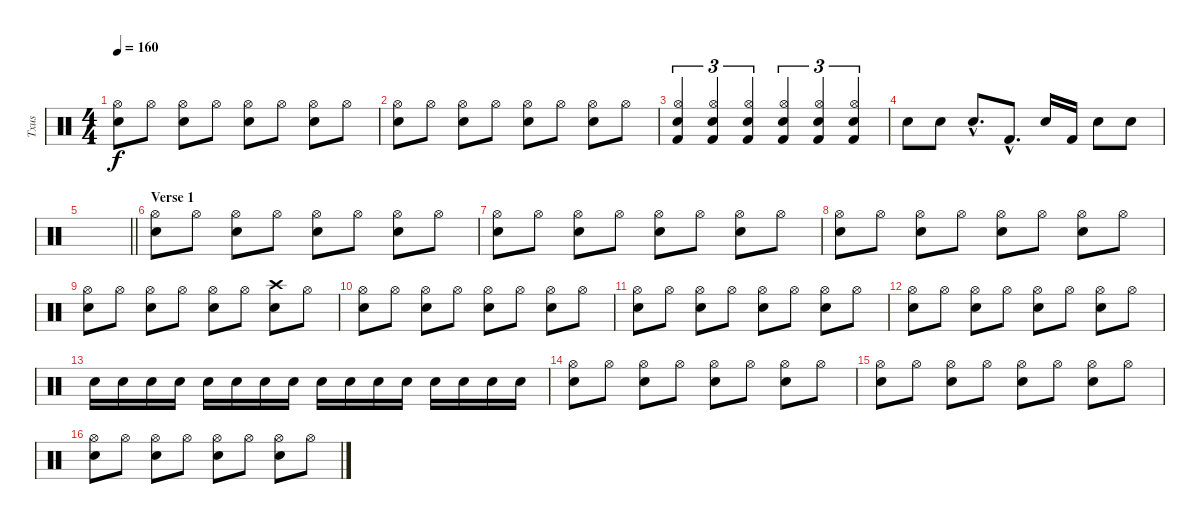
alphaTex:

\track ("Txus" "Txus") {instrument percussion}
\staff {score}
\articulation defaults
\ts (4 4)
\tempo 160
\clef neutral
\ks c
("Snare (hit) 2" "Hi-Hat (open)").8{dy f} "Hi-Hat (open)".8 ("Snare (hit) 2" "Hi-Hat (open)").8 "Hi-Hat (open)".8 ("Snare (hit) 2" "Hi-Hat (open)").8 "Hi-Hat (open)".8 ("Snare (hit) 2" "Hi-Hat (open)").8 "Hi-Hat (open)".8 |
("Snare (hit) 2" "Hi-Hat (open)").8 "Hi-Hat (open)".8 ("Snare (hit) 2" "Hi-Hat (open)").8 "Hi-Hat (open)".8 ("Snare (hit) 2" "Hi-Hat (open)").8 "Hi-Hat (open)".8 ("Snare (hit) 2" "Hi-Hat (open)").8 "Hi-Hat (open)".8 |
("Snare (hit) 2" "Hi-Hat (open)" "Kick (hit) 2").4{tu (3 2)} ("Snare (hit) 2" "Hi-Hat (open)" "Kick (hit) 2").4{tu (3 2)} ("Snare (hit) 2" "Hi-Hat (open)" "Kick (hit) 2").4{tu (3 2)} ("Snare (hit) 2" "Hi-Hat (open)" "Kick (hit) 2").4{tu (3 2)} ("Snare (hit) 2" "Hi-Hat (open)" "Kick (hit) 2").4{tu (3 2)} ("Snare (hit) 2" "Hi-Hat (open)" "Kick (hit) 2").4{tu (3 2)} |
"Snare (hit) 2".8 "Snare (hit) 2".8 "Snare (hit) 2"{hac}.8{d} "Kick (hit) 2"{hac}.8{d} "Snare (hit) 2".16 "Kick (hit) 2".16 "Snare (hit) 2".8 "Snare (hit) 2".8 |
\barLineRight lightlight
|
\section ("" "Verse 1")
("Snare (hit) 2" "Hi-Hat (open)").8 "Hi-Hat (open)".8 ("Snare (hit) 2" "Hi-Hat (open)").8 "Hi-Hat (open)".8 ("Snare (hit) 2" "Hi-Hat (open)").8 "Hi-Hat (open)".8 ("Snare (hit) 2" "Hi-Hat (open)").8 "Hi-Hat (open)".8 |
("Snare (hit) 2" "Hi-Hat (open)").8 "Hi-Hat (open)".8 ("Snare (hit) 2" "Hi-Hat (open)").8 "Hi-Hat (open)".8 ("Snare (hit) 2" "Hi-Hat (open)").8 "Hi-Hat (open)".8 ("Snare (hit) 2" "Hi-Hat (open)").8 "Hi-Hat (open)".8 |
("Snare (hit) 2" "Hi-Hat (open)").8 "Hi-Hat (open)".8 ("Snare (hit) 2" "Hi-Hat (open)").8 "Hi-Hat (open)".8 ("Snare (hit) 2" "Hi-Hat (open)").8 "Hi-Hat (open)".8 ("Snare (hit) 2" "Hi-Hat (open)").8 "Hi-Hat (open)".8 |
("Snare (hit) 2" "Hi-Hat (open)").8 "Hi-Hat (open)".8 ("Snare (hit) 2" "Hi-Hat (open)").8 "Hi-Hat (open)".8 ("Snare (hit) 2" "Hi-Hat (open)").8 "Hi-Hat (open)".8 ("Snare (hit) 2" "Crash high (hit)").8 "Hi-Hat (open)".8 |
("Snare (hit) 2" "Hi-Hat (open)").8 "Hi-Hat (open)".8 ("Snare (hit) 2" "Hi-Hat (open)").8 "Hi-Hat (open)".8 ("Snare (hit) 2" "Hi-Hat (open)").8 "Hi-Hat (open)".8 ("Snare (hit) 2" "Hi-Hat (open)").8 "Hi-Hat (open)".8 |
("Snare (hit) 2" "Hi-Hat (open)").8 "Hi-Hat (open)".8 ("Snare (hit) 2" "Hi-Hat (open)").8 "Hi-Hat (open)".8 ("Snare (hit) 2" "Hi-Hat (open)").8 "Hi-Hat (open)".8 ("Snare (hit) 2" "Hi-Hat (open)").8 "Hi-Hat (open)".8 |
("Snare (hit) 2" "Hi-Hat (open)").8 "Hi-Hat (open)".8 ("Snare (hit) 2" "Hi-Hat (open)").8 "Hi-Hat (open)".8 ("Snare (hit) 2" "Hi-Hat (open)").8 "Hi-Hat (open)".8 ("Snare (hit) 2" "Hi-Hat (open)").8 "Hi-Hat (open)".8 |
"Snare (hit) 2".16 "Snare (hit) 2".16 "Snare (hit) 2".16 "Snare (hit) 2".16 "Snare (hit) 2".16 "Snare (hit) 2".16 "Snare (hit) 2".16 "Snare (hit) 2".16 "Snare (hit) 2".16 "Snare (hit) 2".16 "Snare (hit) 2".16 "Snare (hit) 2".16 "Snare (hit) 2".16 "Snare (hit) 2".16 "Snare (hit) 2".16 "Snare (hit) 2".16 |
("Snare (hit) 2" "Hi-Hat (open)").8 "Hi-Hat (open)".8 ("Snare (hit) 2" "Hi-Hat (open)").8 "Hi-Hat (open)".8 ("Snare (hit) 2" "Hi-Hat (open)").8 "Hi-Hat (open)".8 ("Snare (hit) 2" "Hi-Hat (open)").8 "Hi-Hat (open)".8 |
("Snare (hit) 2" "Hi-Hat (open)").8 "Hi-Hat (open)".8 ("Snare (hit) 2" "Hi-Hat (open)").8 "Hi-Hat (open)".8 ("Snare (hit) 2" "Hi-Hat (open)").8 "Hi-Hat (open)".8 ("Snare (hit) 2" "Hi-Hat (open)").8 "Hi-Hat (open)".8 |
("Snare (hit) 2" "Hi-Hat (open)").8 "Hi-Hat (open)".8 ("Snare (hit) 2" "Hi-Hat (open)").8 "Hi-Hat (open)".8 ("Snare (hit) 2" "Hi-Hat (open)").8 "Hi-Hat (open)".8 ("Snare (hit) 2" "Hi-Hat (open)").8 "Hi-Hat (open)".8
